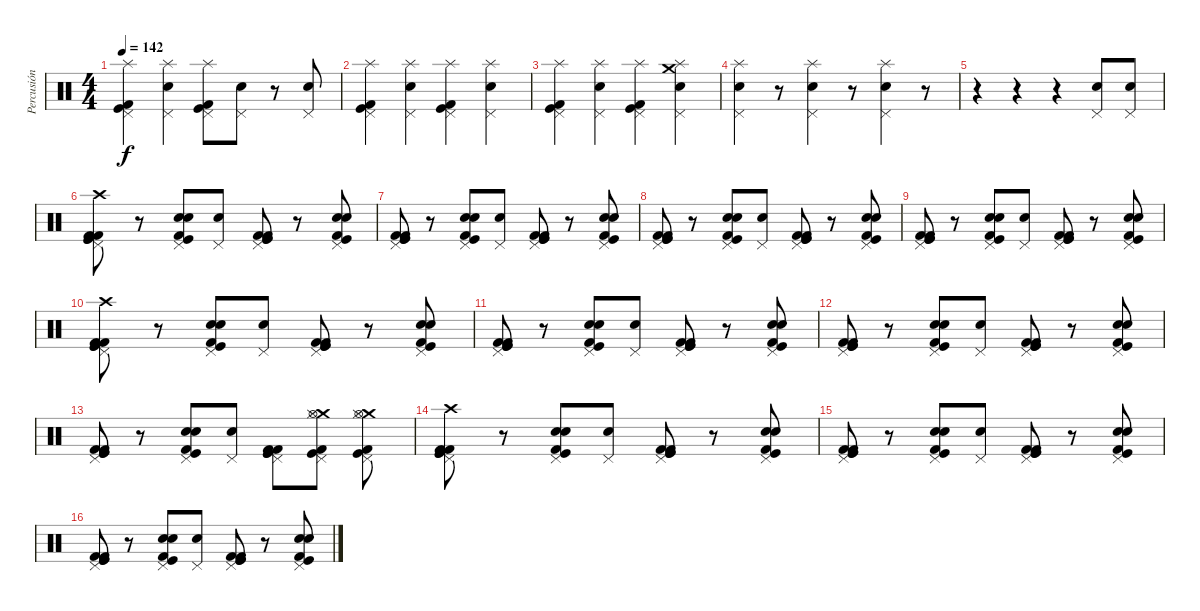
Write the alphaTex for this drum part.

\track ("Percusión" "Percusión") {instrument percussion}
\staff {score}
\articulation defaults
\ts (4 4)
\tempo 142
\clef neutral
\ks c
("Splash (hit)" "Pedal Hi-Hat (hit)" "Kick (hit)" "Kick (hit) 2").4{dy f} ("Splash (hit)" "Pedal Hi-Hat (hit)" "Electric Snare (hit)").4 ("Splash (hit)" "Pedal Hi-Hat (hit)" "Kick (hit)" "Kick (hit) 2").8 ("Electric Snare (hit)" "Pedal Hi-Hat (hit)").8 r.8 ("Pedal Hi-Hat (hit)" "Electric Snare (hit)").8 |
("Splash (hit)" "Pedal Hi-Hat (hit)" "Kick (hit)" "Kick (hit) 2").4 ("Splash (hit)" "Pedal Hi-Hat (hit)" "Electric Snare (hit)").4 ("Splash (hit)" "Pedal Hi-Hat (hit)" "Kick (hit)" "Kick (hit) 2").4 ("Splash (hit)" "Pedal Hi-Hat (hit)" "Electric Snare (hit)").4 |
("Splash (hit)" "Pedal Hi-Hat (hit)" "Kick (hit)" "Kick (hit) 2").4 ("Splash (hit)" "Pedal Hi-Hat (hit)" "Electric Snare (hit)").4 ("Splash (hit)" "Pedal Hi-Hat (hit)" "Kick (hit)" "Kick (hit) 2").4 ("Crash medium (hit)" "Splash (hit)" "Pedal Hi-Hat (hit)" "Electric Snare (hit)").4 |
("Splash (hit)" "Pedal Hi-Hat (hit)" "Electric Snare (hit)").4 r.8 ("Splash (hit)" "Pedal Hi-Hat (hit)" "Electric Snare (hit)").4 r.8 ("Splash (hit)" "Pedal Hi-Hat (hit)" "Electric Snare (hit)").4 r.8 |
r.4 r.4 r.4 ("Electric Snare (hit)" "Pedal Hi-Hat (hit)").8 ("Electric Snare (hit)" "Pedal Hi-Hat (hit)").8 |
("Kick (hit) 2" "Kick (hit)" "Crash high (hit)" "Pedal Hi-Hat (hit)" "Kick (hit) 2" "Kick (hit)").8 r.8 ("Snare (hit) 2" "Pedal Hi-Hat (hit)" "Electric Snare (hit)" "Kick (hit)" "Kick (hit) 2").8 ("Pedal Hi-Hat (hit)" "Electric Snare (hit)").8 ("Kick (hit) 2" "Kick (hit)" "Pedal Hi-Hat (hit)" "Kick (hit) 2" "Kick (hit)").8 r.8 ("Snare (hit) 2" "Pedal Hi-Hat (hit)" "Electric Snare (hit)" "Kick (hit)" "Kick (hit) 2").8 |
("Kick (hit) 2" "Kick (hit)" "Pedal Hi-Hat (hit)" "Kick (hit) 2" "Kick (hit)").8 r.8 ("Snare (hit) 2" "Pedal Hi-Hat (hit)" "Electric Snare (hit)" "Kick (hit)" "Kick (hit) 2").8 ("Pedal Hi-Hat (hit)" "Electric Snare (hit)").8 ("Kick (hit) 2" "Kick (hit)" "Pedal Hi-Hat (hit)" "Kick (hit) 2" "Kick (hit)").8 r.8 ("Snare (hit) 2" "Pedal Hi-Hat (hit)" "Electric Snare (hit)" "Kick (hit)" "Kick (hit) 2").8 |
("Kick (hit) 2" "Kick (hit)" "Pedal Hi-Hat (hit)" "Kick (hit) 2" "Kick (hit)").8 r.8 ("Snare (hit) 2" "Pedal Hi-Hat (hit)" "Electric Snare (hit)" "Kick (hit)" "Kick (hit) 2").8 ("Pedal Hi-Hat (hit)" "Electric Snare (hit)").8 ("Kick (hit) 2" "Kick (hit)" "Pedal Hi-Hat (hit)" "Kick (hit) 2" "Kick (hit)").8 r.8 ("Snare (hit) 2" "Pedal Hi-Hat (hit)" "Electric Snare (hit)" "Kick (hit)" "Kick (hit) 2").8 |
("Kick (hit) 2" "Kick (hit)" "Pedal Hi-Hat (hit)" "Kick (hit) 2" "Kick (hit)").8 r.8 ("Snare (hit) 2" "Pedal Hi-Hat (hit)" "Electric Snare (hit)" "Kick (hit)" "Kick (hit) 2").8 ("Pedal Hi-Hat (hit)" "Electric Snare (hit)").8 ("Kick (hit) 2" "Kick (hit)" "Pedal Hi-Hat (hit)" "Kick (hit) 2" "Kick (hit)").8 r.8 ("Snare (hit) 2" "Pedal Hi-Hat (hit)" "Electric Snare (hit)" "Kick (hit)" "Kick (hit) 2").8 |
("Kick (hit) 2" "Kick (hit)" "Crash high (hit)" "Pedal Hi-Hat (hit)" "Kick (hit) 2" "Kick (hit)").8 r.8 ("Snare (hit) 2" "Pedal Hi-Hat (hit)" "Electric Snare (hit)" "Kick (hit)" "Kick (hit) 2").8 ("Pedal Hi-Hat (hit)" "Electric Snare (hit)").8 ("Kick (hit) 2" "Kick (hit)" "Pedal Hi-Hat (hit)" "Kick (hit) 2" "Kick (hit)").8 r.8 ("Snare (hit) 2" "Pedal Hi-Hat (hit)" "Electric Snare (hit)" "Kick (hit)" "Kick (hit) 2").8 |
("Kick (hit) 2" "Kick (hit)" "Pedal Hi-Hat (hit)" "Kick (hit) 2" "Kick (hit)").8 r.8 ("Snare (hit) 2" "Pedal Hi-Hat (hit)" "Electric Snare (hit)" "Kick (hit)" "Kick (hit) 2").8 ("Pedal Hi-Hat (hit)" "Electric Snare (hit)").8 ("Kick (hit) 2" "Kick (hit)" "Pedal Hi-Hat (hit)" "Kick (hit) 2" "Kick (hit)").8 r.8 ("Snare (hit) 2" "Pedal Hi-Hat (hit)" "Electric Snare (hit)" "Kick (hit)" "Kick (hit) 2").8 |
("Kick (hit) 2" "Kick (hit)" "Pedal Hi-Hat (hit)" "Kick (hit) 2" "Kick (hit)").8 r.8 ("Snare (hit) 2" "Pedal Hi-Hat (hit)" "Electric Snare (hit)" "Kick (hit)" "Kick (hit) 2").8 ("Pedal Hi-Hat (hit)" "Electric Snare (hit)").8 ("Kick (hit) 2" "Kick (hit)" "Pedal Hi-Hat (hit)" "Kick (hit) 2" "Kick (hit)").8 r.8 ("Snare (hit) 2" "Pedal Hi-Hat (hit)" "Electric Snare (hit)" "Kick (hit)" "Kick (hit) 2").8 |
("Kick (hit) 2" "Kick (hit)" "Pedal Hi-Hat (hit)" "Kick (hit) 2" "Kick (hit)").8 r.8 ("Snare (hit) 2" "Pedal Hi-Hat (hit)" "Electric Snare (hit)" "Kick (hit)" "Kick (hit) 2").8 ("Pedal Hi-Hat (hit)" "Electric Snare (hit)").8 ("Kick (hit) 2" "Kick (hit)" "Pedal Hi-Hat (hit)" "Kick (hit) 2" "Kick (hit)").8 ("Crash medium (hit)" "Hi-Hat (open)" "Pedal Hi-Hat (hit)" "Hi-Hat (closed)" "Kick (hit)" "Kick (hit) 2").8 ("Crash medium (hit)" "Hi-Hat (open)" "Pedal Hi-Hat (hit)" "Hi-Hat (closed)" "Kick (hit)" "Kick (hit) 2").8 |
("Kick (hit) 2" "Kick (hit)" "Crash high (hit)" "Pedal Hi-Hat (hit)" "Kick (hit) 2" "Kick (hit)").8 r.8 ("Snare (hit) 2" "Pedal Hi-Hat (hit)" "Electric Snare (hit)" "Kick (hit)" "Kick (hit) 2").8 ("Pedal Hi-Hat (hit)" "Electric Snare (hit)").8 ("Kick (hit) 2" "Kick (hit)" "Pedal Hi-Hat (hit)" "Kick (hit) 2" "Kick (hit)").8 r.8 ("Snare (hit) 2" "Pedal Hi-Hat (hit)" "Electric Snare (hit)" "Kick (hit)" "Kick (hit) 2").8 |
("Kick (hit) 2" "Kick (hit)" "Pedal Hi-Hat (hit)" "Kick (hit) 2" "Kick (hit)").8 r.8 ("Snare (hit) 2" "Pedal Hi-Hat (hit)" "Electric Snare (hit)" "Kick (hit)" "Kick (hit) 2").8 ("Pedal Hi-Hat (hit)" "Electric Snare (hit)").8 ("Kick (hit) 2" "Kick (hit)" "Pedal Hi-Hat (hit)" "Kick (hit) 2" "Kick (hit)").8 r.8 ("Snare (hit) 2" "Pedal Hi-Hat (hit)" "Electric Snare (hit)" "Kick (hit)" "Kick (hit) 2").8 |
("Kick (hit) 2" "Kick (hit)" "Pedal Hi-Hat (hit)" "Kick (hit) 2" "Kick (hit)").8 r.8 ("Snare (hit) 2" "Pedal Hi-Hat (hit)" "Electric Snare (hit)" "Kick (hit)" "Kick (hit) 2").8 ("Pedal Hi-Hat (hit)" "Electric Snare (hit)").8 ("Kick (hit) 2" "Kick (hit)" "Pedal Hi-Hat (hit)" "Kick (hit) 2" "Kick (hit)").8 r.8 ("Snare (hit) 2" "Pedal Hi-Hat (hit)" "Electric Snare (hit)" "Kick (hit)" "Kick (hit) 2").8
